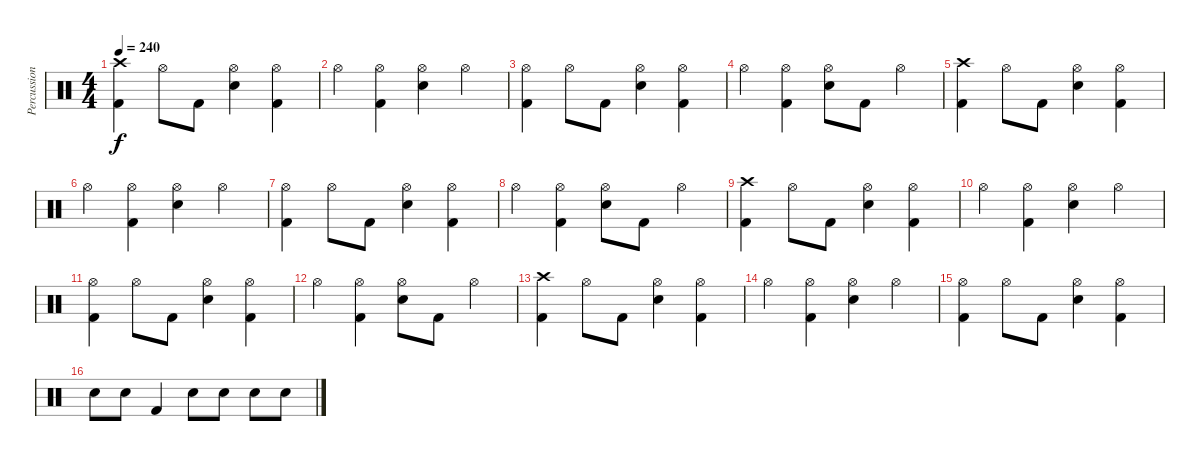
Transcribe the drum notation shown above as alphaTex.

\track ("Percussion" "Percussion") {instrument percussion}
\staff {score}
\articulation defaults
\ts (4 4)
\tempo 240
\clef neutral
\ks c
("Crash high (hit)" "Kick (hit) 2").4{dy f} "Hi-Hat (open)".8 "Kick (hit) 2".8 ("Hi-Hat (open)" "Snare (hit) 2").4 ("Hi-Hat (open)" "Kick (hit) 2").4 |
"Hi-Hat (open)".4 ("Hi-Hat (open)" "Kick (hit) 2").4 ("Hi-Hat (open)" "Snare (hit) 2").4 "Hi-Hat (open)".4 |
("Hi-Hat (open)" "Kick (hit) 2").4 "Hi-Hat (open)".8 "Kick (hit) 2".8 ("Hi-Hat (open)" "Snare (hit) 2").4 ("Hi-Hat (open)" "Kick (hit) 2").4 |
"Hi-Hat (open)".4 ("Hi-Hat (open)" "Kick (hit) 2").4 ("Hi-Hat (open)" "Snare (hit) 2").8 "Kick (hit) 2".8 "Hi-Hat (open)".4 |
("Crash high (hit)" "Kick (hit) 2").4 "Hi-Hat (open)".8 "Kick (hit) 2".8 ("Hi-Hat (open)" "Snare (hit) 2").4 ("Hi-Hat (open)" "Kick (hit) 2").4 |
"Hi-Hat (open)".4 ("Hi-Hat (open)" "Kick (hit) 2").4 ("Hi-Hat (open)" "Snare (hit) 2").4 "Hi-Hat (open)".4 |
("Hi-Hat (open)" "Kick (hit) 2").4 "Hi-Hat (open)".8 "Kick (hit) 2".8 ("Hi-Hat (open)" "Snare (hit) 2").4 ("Hi-Hat (open)" "Kick (hit) 2").4 |
"Hi-Hat (open)".4 ("Hi-Hat (open)" "Kick (hit) 2").4 ("Hi-Hat (open)" "Snare (hit) 2").8 "Kick (hit) 2".8 "Hi-Hat (open)".4 |
("Crash high (hit)" "Kick (hit) 2").4 "Hi-Hat (open)".8 "Kick (hit) 2".8 ("Hi-Hat (open)" "Snare (hit) 2").4 ("Hi-Hat (open)" "Kick (hit) 2").4 |
"Hi-Hat (open)".4 ("Hi-Hat (open)" "Kick (hit) 2").4 ("Hi-Hat (open)" "Snare (hit) 2").4 "Hi-Hat (open)".4 |
("Hi-Hat (open)" "Kick (hit) 2").4 "Hi-Hat (open)".8 "Kick (hit) 2".8 ("Hi-Hat (open)" "Snare (hit) 2").4 ("Hi-Hat (open)" "Kick (hit) 2").4 |
"Hi-Hat (open)".4 ("Hi-Hat (open)" "Kick (hit) 2").4 ("Hi-Hat (open)" "Snare (hit) 2").8 "Kick (hit) 2".8 "Hi-Hat (open)".4 |
("Crash high (hit)" "Kick (hit) 2").4 "Hi-Hat (open)".8 "Kick (hit) 2".8 ("Hi-Hat (open)" "Snare (hit) 2").4 ("Hi-Hat (open)" "Kick (hit) 2").4 |
"Hi-Hat (open)".4 ("Hi-Hat (open)" "Kick (hit) 2").4 ("Hi-Hat (open)" "Snare (hit) 2").4 "Hi-Hat (open)".4 |
("Hi-Hat (open)" "Kick (hit) 2").4 "Hi-Hat (open)".8 "Kick (hit) 2".8 ("Hi-Hat (open)" "Snare (hit) 2").4 ("Hi-Hat (open)" "Kick (hit) 2").4 |
"Snare (hit) 2".8 "Snare (hit) 2".8 "Kick (hit) 2".4 "Snare (hit) 2".8 "Snare (hit) 2".8 "Snare (hit) 2".8 "Snare (hit) 2".8
